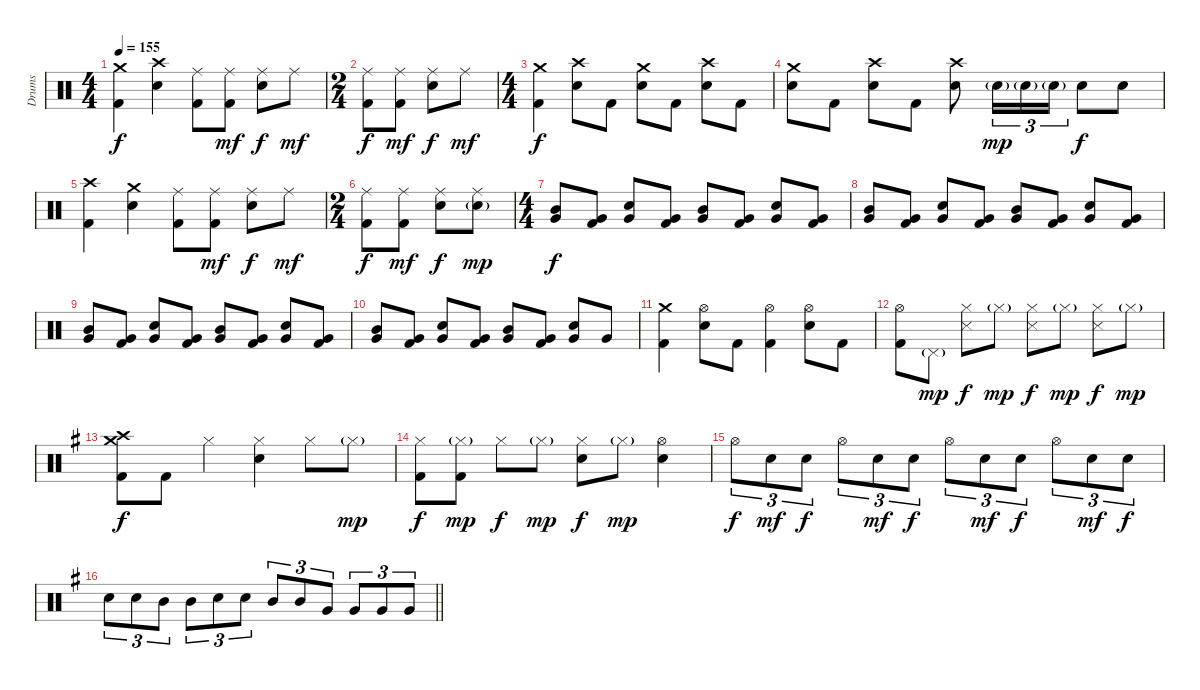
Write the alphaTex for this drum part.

\track ("Drums" "Drums") {instrument percussion}
\staff {score}
\articulation defaults
\ts (4 4)
\tempo 155
\clef neutral
\ks aminor
("Crash medium (hit)" "Kick (hit) 2").4{dy f} ("Crash high (hit)" "Electric Snare (hit)").4 ("Ride (middle)" "Kick (hit) 2").8 ("Ride (middle)" "Kick (hit) 2").8{dy mf} ("Ride (middle)" "Electric Snare (hit)").8{dy f} "Ride (middle)".8{dy mf} |
\ts (2 4)
("Ride (middle)" "Kick (hit) 2").8{dy f} ("Ride (middle)" "Kick (hit) 2").8{dy mf} ("Ride (middle)" "Electric Snare (hit)").8{dy f} "Ride (middle)".8{dy mf} |
\ts (4 4)
("Crash medium (hit)" "Kick (hit) 2").4{dy f} ("Crash high (hit)" "Electric Snare (hit)").8 "Kick (hit) 2".8 ("Crash medium (hit)" "Electric Snare (hit)").8 "Kick (hit) 2".8 ("Crash high (hit)" "Electric Snare (hit)").8 "Kick (hit) 2".8 |
("Crash medium (hit)" "Electric Snare (hit)").8 "Kick (hit) 2".8 ("Crash high (hit)" "Electric Snare (hit)").8 "Kick (hit) 2".8 ("Crash high (hit)" "Electric Snare (hit)").8 "Electric Snare (hit)"{g}.16{tu (3 2) dy mp} "Electric Snare (hit)"{g}.16{tu (3 2)} "Electric Snare (hit)"{g}.16{tu (3 2)} "Electric Snare (hit)".8{dy f} "Electric Snare (hit)".8 |
("Crash high (hit)" "Kick (hit) 2").4 ("Crash medium (hit)" "Electric Snare (hit)").4 ("Ride (middle)" "Kick (hit) 2").8 ("Ride (middle)" "Kick (hit) 2").8{dy mf} ("Ride (middle)" "Electric Snare (hit)").8{dy f} "Ride (middle)".8{dy mf} |
\ts (2 4)
("Ride (middle)" "Kick (hit) 2").8{dy f} ("Ride (middle)" "Kick (hit) 2").8{dy mf} ("Ride (middle)" "Electric Snare (hit)").8{dy f} ("Ride (middle)" "Electric Snare (hit)"{g}).8{dy mp} |
\ts (4 4)
("Mid Tom (hit)" "Very Low Tom (hit)").8{dy f} ("Very Low Tom (hit)" "Kick (hit) 2").8 ("Electric Snare (hit)" "Very Low Tom (hit)").8 ("Very Low Tom (hit)" "Kick (hit) 2").8 ("Mid Tom (hit)" "Very Low Tom (hit)").8 ("Very Low Tom (hit)" "Kick (hit) 2").8 ("Electric Snare (hit)" "Very Low Tom (hit)").8 ("Very Low Tom (hit)" "Kick (hit) 2").8 |
("Mid Tom (hit)" "Very Low Tom (hit)").8 ("Very Low Tom (hit)" "Kick (hit) 2").8 ("Electric Snare (hit)" "Very Low Tom (hit)").8 ("Very Low Tom (hit)" "Kick (hit) 2").8 ("Mid Tom (hit)" "Very Low Tom (hit)").8 ("Very Low Tom (hit)" "Kick (hit) 2").8 ("Electric Snare (hit)" "Very Low Tom (hit)").8 ("Very Low Tom (hit)" "Kick (hit) 2").8 |
("Mid Tom (hit)" "Very Low Tom (hit)").8 ("Very Low Tom (hit)" "Kick (hit) 2").8 ("Electric Snare (hit)" "Very Low Tom (hit)").8 ("Very Low Tom (hit)" "Kick (hit) 2").8 ("Mid Tom (hit)" "Very Low Tom (hit)").8 ("Very Low Tom (hit)" "Kick (hit) 2").8 ("Electric Snare (hit)" "Very Low Tom (hit)").8 ("Very Low Tom (hit)" "Kick (hit) 2").8 |
("Mid Tom (hit)" "Very Low Tom (hit)").8 ("Very Low Tom (hit)" "Kick (hit) 2").8 ("Electric Snare (hit)" "Very Low Tom (hit)").8 ("Very Low Tom (hit)" "Kick (hit) 2").8 ("Mid Tom (hit)" "Very Low Tom (hit)").8 ("Very Low Tom (hit)" "Kick (hit) 2").8 ("Electric Snare (hit)" "Very Low Tom (hit)").8 "Very Low Tom (hit)".8 |
("Crash medium (hit)" "Kick (hit) 2").4 ("Hi-Hat (open)" "Electric Snare (hit)").8 "Kick (hit) 2".8 ("Hi-Hat (open)" "Kick (hit) 2").4 ("Hi-Hat (open)" "Electric Snare (hit)").8 "Kick (hit) 2".8 |
("Hi-Hat (open)" "Kick (hit) 2").8 "Pedal Hi-Hat (hit)"{g}.8{dy mp} ("Hi-Hat (closed)" "Snare (side stick) 3").8{dy f} "Hi-Hat (closed)"{g}.8{dy mp} ("Hi-Hat (closed)" "Snare (side stick) 3").8{dy f} "Hi-Hat (closed)"{g}.8{dy mp} ("Hi-Hat (closed)" "Snare (side stick) 3").8{dy f} "Hi-Hat (closed)"{g}.8{dy mp} |
\ks eminor
("Crash high (hit)" "Crash medium (hit)" "Kick (hit) 2").8{dy f} "Kick (hit) 2".8 "Hi-Hat (closed)".4 ("Hi-Hat (closed)" "Electric Snare (hit)").4 "Hi-Hat (closed)".8 "Hi-Hat (closed)"{g}.8{dy mp} |
("Hi-Hat (closed)" "Kick (hit) 2").8{dy f} ("Hi-Hat (closed)"{g} "Kick (hit) 2").8{dy mp} "Hi-Hat (closed)".8{dy f} "Hi-Hat (closed)"{g}.8{dy mp} ("Hi-Hat (closed)" "Electric Snare (hit)").8{dy f} "Hi-Hat (closed)"{g}.8{dy mp} ("Hi-Hat (open)" "Electric Snare (hit)").4 |
"Hi-Hat (open)".8{tu (3 2) dy f} "Electric Snare (hit)".8{tu (3 2) dy mf} "Electric Snare (hit)".8{tu (3 2) dy f} "Hi-Hat (open)".8{tu (3 2)} "Electric Snare (hit)".8{tu (3 2) dy mf} "Electric Snare (hit)".8{tu (3 2) dy f} "Hi-Hat (open)".8{tu (3 2)} "Electric Snare (hit)".8{tu (3 2) dy mf} "Electric Snare (hit)".8{tu (3 2) dy f} "Hi-Hat (open)".8{tu (3 2)} "Electric Snare (hit)".8{tu (3 2) dy mf} "Electric Snare (hit)".8{tu (3 2) dy f} |
\barLineRight lightlight "Electric Snare (hit)".8{tu (3 2)} "Electric Snare (hit)".8{tu (3 2)} "Mid Tom (hit)".8{tu (3 2)} "Mid Tom (hit)".8{tu (3 2)} "Electric Snare (hit)".8{tu (3 2)} "Electric Snare (hit)".8{tu (3 2)} "Mid Tom (hit)".8{tu (3 2)} "Mid Tom (hit)".8{tu (3 2)} "Very Low Tom (hit)".8{tu (3 2)} "Very Low Tom (hit)".8{tu (3 2)} "Very Low Tom (hit)".8{tu (3 2)} "Very Low Tom (hit)".8{tu (3 2)}
